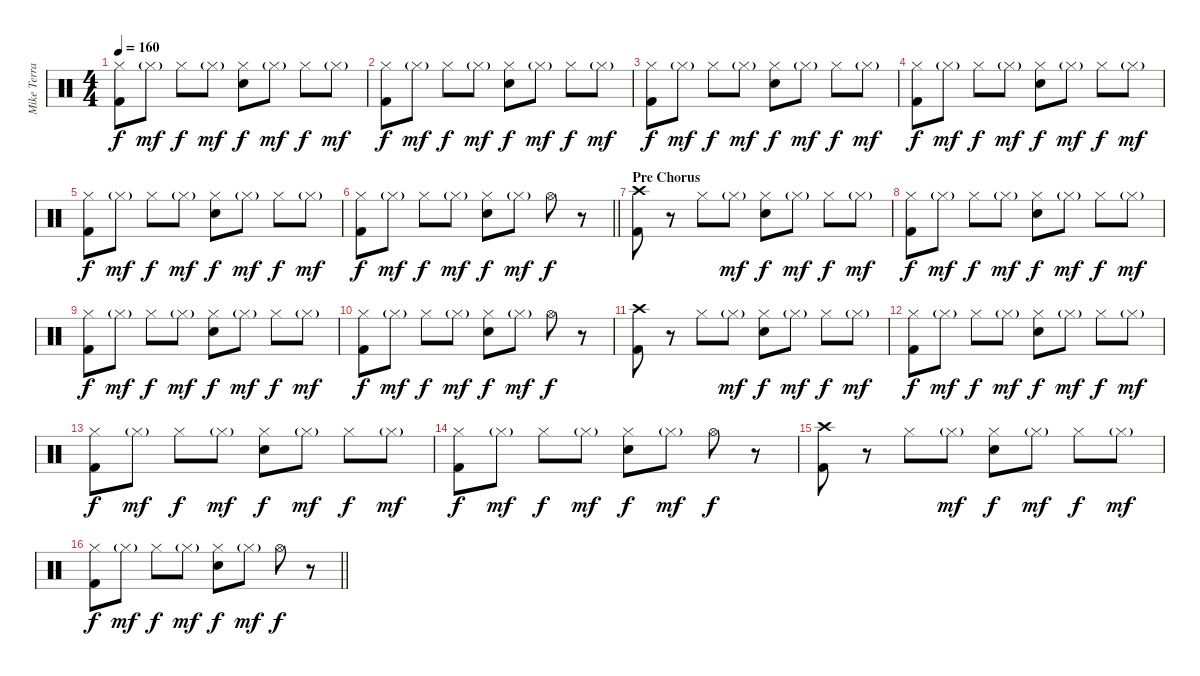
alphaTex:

\track ("Mike Terrana" "Mike Terra") {instrument percussion}
\staff {score}
\articulation defaults
\ts (4 4)
\tempo 160
\clef neutral
\ks c
("Hi-Hat (closed)" "Kick (hit) 2").8{dy f} "Hi-Hat (closed)"{g}.8{dy mf} "Hi-Hat (closed)".8{dy f} "Hi-Hat (closed)"{g}.8{dy mf} ("Hi-Hat (closed)" "Snare (hit) 2").8{dy f} "Hi-Hat (closed)"{g}.8{dy mf} "Hi-Hat (closed)".8{dy f} "Hi-Hat (closed)"{g}.8{dy mf} |
("Hi-Hat (closed)" "Kick (hit) 2").8{dy f} "Hi-Hat (closed)"{g}.8{dy mf} "Hi-Hat (closed)".8{dy f} "Hi-Hat (closed)"{g}.8{dy mf} ("Hi-Hat (closed)" "Snare (hit) 2").8{dy f} "Hi-Hat (closed)"{g}.8{dy mf} "Hi-Hat (closed)".8{dy f} "Hi-Hat (closed)"{g}.8{dy mf} |
("Hi-Hat (closed)" "Kick (hit) 2").8{dy f} "Hi-Hat (closed)"{g}.8{dy mf} "Hi-Hat (closed)".8{dy f} "Hi-Hat (closed)"{g}.8{dy mf} ("Hi-Hat (closed)" "Snare (hit) 2").8{dy f} "Hi-Hat (closed)"{g}.8{dy mf} "Hi-Hat (closed)".8{dy f} "Hi-Hat (closed)"{g}.8{dy mf} |
("Hi-Hat (closed)" "Kick (hit) 2").8{dy f} "Hi-Hat (closed)"{g}.8{dy mf} "Hi-Hat (closed)".8{dy f} "Hi-Hat (closed)"{g}.8{dy mf} ("Hi-Hat (closed)" "Snare (hit) 2").8{dy f} "Hi-Hat (closed)"{g}.8{dy mf} "Hi-Hat (closed)".8{dy f} "Hi-Hat (closed)"{g}.8{dy mf} |
("Hi-Hat (closed)" "Kick (hit) 2").8{dy f} "Hi-Hat (closed)"{g}.8{dy mf} "Hi-Hat (closed)".8{dy f} "Hi-Hat (closed)"{g}.8{dy mf} ("Hi-Hat (closed)" "Snare (hit) 2").8{dy f} "Hi-Hat (closed)"{g}.8{dy mf} "Hi-Hat (closed)".8{dy f} "Hi-Hat (closed)"{g}.8{dy mf} |
\barLineRight lightlight
("Hi-Hat (closed)" "Kick (hit) 2").8{dy f} "Hi-Hat (closed)"{g}.8{dy mf} "Hi-Hat (closed)".8{dy f} "Hi-Hat (closed)"{g}.8{dy mf} ("Hi-Hat (closed)" "Snare (hit) 2").8{dy f} "Hi-Hat (closed)"{g}.8{dy mf} "Hi-Hat (open)".8{dy f} r.8 |
\section ("" "Pre Chorus")
("Crash high (hit)" "Kick (hit) 2").8 r.8 "Hi-Hat (closed)".8 "Hi-Hat (closed)"{g}.8{dy mf} ("Hi-Hat (closed)" "Snare (hit) 2").8{dy f} "Hi-Hat (closed)"{g}.8{dy mf} "Hi-Hat (closed)".8{dy f} "Hi-Hat (closed)"{g}.8{dy mf} |
("Hi-Hat (closed)" "Kick (hit) 2").8{dy f} "Hi-Hat (closed)"{g}.8{dy mf} "Hi-Hat (closed)".8{dy f} "Hi-Hat (closed)"{g}.8{dy mf} ("Hi-Hat (closed)" "Snare (hit) 2").8{dy f} "Hi-Hat (closed)"{g}.8{dy mf} "Hi-Hat (closed)".8{dy f} "Hi-Hat (closed)"{g}.8{dy mf} |
("Hi-Hat (closed)" "Kick (hit) 2").8{dy f} "Hi-Hat (closed)"{g}.8{dy mf} "Hi-Hat (closed)".8{dy f} "Hi-Hat (closed)"{g}.8{dy mf} ("Hi-Hat (closed)" "Snare (hit) 2").8{dy f} "Hi-Hat (closed)"{g}.8{dy mf} "Hi-Hat (closed)".8{dy f} "Hi-Hat (closed)"{g}.8{dy mf} |
("Hi-Hat (closed)" "Kick (hit) 2").8{dy f} "Hi-Hat (closed)"{g}.8{dy mf} "Hi-Hat (closed)".8{dy f} "Hi-Hat (closed)"{g}.8{dy mf} ("Hi-Hat (closed)" "Snare (hit) 2").8{dy f} "Hi-Hat (closed)"{g}.8{dy mf} "Hi-Hat (open)".8{dy f} r.8 |
("Crash high (hit)" "Kick (hit) 2").8 r.8 "Hi-Hat (closed)".8 "Hi-Hat (closed)"{g}.8{dy mf} ("Hi-Hat (closed)" "Snare (hit) 2").8{dy f} "Hi-Hat (closed)"{g}.8{dy mf} "Hi-Hat (closed)".8{dy f} "Hi-Hat (closed)"{g}.8{dy mf} |
("Hi-Hat (closed)" "Kick (hit) 2").8{dy f} "Hi-Hat (closed)"{g}.8{dy mf} "Hi-Hat (closed)".8{dy f} "Hi-Hat (closed)"{g}.8{dy mf} ("Hi-Hat (closed)" "Snare (hit) 2").8{dy f} "Hi-Hat (closed)"{g}.8{dy mf} "Hi-Hat (closed)".8{dy f} "Hi-Hat (closed)"{g}.8{dy mf} |
("Hi-Hat (closed)" "Kick (hit) 2").8{dy f} "Hi-Hat (closed)"{g}.8{dy mf} "Hi-Hat (closed)".8{dy f} "Hi-Hat (closed)"{g}.8{dy mf} ("Hi-Hat (closed)" "Snare (hit) 2").8{dy f} "Hi-Hat (closed)"{g}.8{dy mf} "Hi-Hat (closed)".8{dy f} "Hi-Hat (closed)"{g}.8{dy mf} |
("Hi-Hat (closed)" "Kick (hit) 2").8{dy f} "Hi-Hat (closed)"{g}.8{dy mf} "Hi-Hat (closed)".8{dy f} "Hi-Hat (closed)"{g}.8{dy mf} ("Hi-Hat (closed)" "Snare (hit) 2").8{dy f} "Hi-Hat (closed)"{g}.8{dy mf} "Hi-Hat (open)".8{dy f} r.8 |
("Crash high (hit)" "Kick (hit) 2").8 r.8 "Hi-Hat (closed)".8 "Hi-Hat (closed)"{g}.8{dy mf} ("Hi-Hat (closed)" "Snare (hit) 2").8{dy f} "Hi-Hat (closed)"{g}.8{dy mf} "Hi-Hat (closed)".8{dy f} "Hi-Hat (closed)"{g}.8{dy mf} |
\barLineRight lightlight
("Hi-Hat (closed)" "Kick (hit) 2").8{dy f} "Hi-Hat (closed)"{g}.8{dy mf} "Hi-Hat (closed)".8{dy f} "Hi-Hat (closed)"{g}.8{dy mf} ("Hi-Hat (closed)" "Snare (hit) 2").8{dy f} "Hi-Hat (closed)"{g}.8{dy mf} "Hi-Hat (open)".8{dy f} r.8
